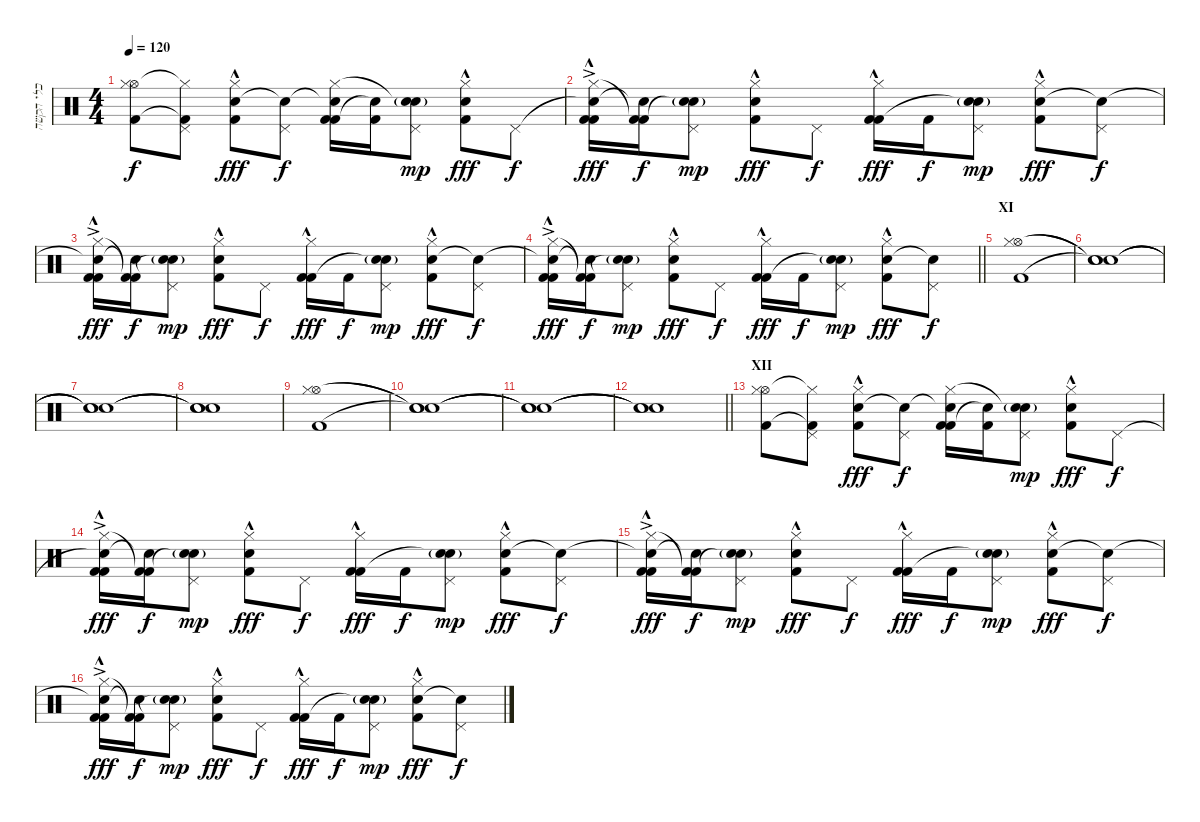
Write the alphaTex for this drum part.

\track ("כלי הקשה" "כלי הקשה") {instrument percussion}
\staff {score}
\articulation defaults
\ts (4 4)
\tempo 120
\clef neutral
\ks c
("Hi-Hat (open)" "Hi-Hat (closed)" "Kick (hit) 2").8{dy f} ("Pedal Hi-Hat (hit)" "Hi-Hat (closed)"{t} "Kick (hit) 2"{t}).8 ("Hand Clap (hit)"{hac} "Hi-Hat (closed)" "Kick (hit) 2").8{dy fff} ("Snare (hit)"{t} "Pedal Hi-Hat (hit)").8{dy f} ("Snare (hit)"{t} "Kick (hit) 2" "Hi-Hat (closed)" "Kick (hit) 2").16 ("Kick (hit) 2" "Snare (hit)"{t}).16 ("Hand Clap (hit)"{g} "Pedal Hi-Hat (hit)" "Snare (hit)"{t}).8{dy mp} ("Hand Clap (hit)"{hac} "Hi-Hat (closed)" "Kick (hit) 2").8{dy fff} "Pedal Hi-Hat (hit)".8{dy f} |
("Snare (hit)"{t} "Kick (hit) 2"{ac} "Hi-Hat (closed)"{hac} "Kick (hit) 2"{hac}).16{dy fff} ("Snare (hit)"{t} "Kick (hit) 2" "Kick (hit) 2"{t}).16{dy f} ("Hand Clap (hit)"{g} "Pedal Hi-Hat (hit)" "Snare (hit)"{t}).8{dy mp} ("Hand Clap (hit)"{hac} "Hi-Hat (closed)"{hac} "Kick (hit) 2"{hac}).8{dy fff} "Pedal Hi-Hat (hit)".8{dy f} ("Kick (hit) 2" "Hi-Hat (closed)"{hac} "Kick (hit) 2"{hac}).16{dy fff} "Kick (hit) 2".16{dy f} ("Hand Clap (hit)"{g} "Pedal Hi-Hat (hit)" "Snare (hit)"{t}).8{dy mp} ("Hand Clap (hit)"{hac} "Hi-Hat (closed)"{hac} "Kick (hit) 2"{hac}).8{dy fff} ("Snare (hit)"{t} "Pedal Hi-Hat (hit)").8{dy f} |
("Snare (hit)"{t} "Kick (hit) 2"{ac} "Hi-Hat (closed)"{hac} "Kick (hit) 2"{hac}).16{dy fff} ("Snare (hit)"{t} "Kick (hit) 2" "Kick (hit) 2"{t}).16{dy f} ("Hand Clap (hit)"{g} "Pedal Hi-Hat (hit)" "Snare (hit)"{t}).8{dy mp} ("Hand Clap (hit)"{hac} "Hi-Hat (closed)"{hac} "Kick (hit) 2"{hac}).8{dy fff} "Pedal Hi-Hat (hit)".8{dy f} ("Kick (hit) 2" "Hi-Hat (closed)"{hac} "Kick (hit) 2"{hac}).16{dy fff} "Kick (hit) 2".16{dy f} ("Hand Clap (hit)"{g} "Pedal Hi-Hat (hit)" "Snare (hit)"{t}).8{dy mp} ("Hand Clap (hit)"{hac} "Hi-Hat (closed)"{hac} "Kick (hit) 2"{hac}).8{dy fff} ("Snare (hit)"{t} "Pedal Hi-Hat (hit)").8{dy f} |
\barLineRight lightlight
("Snare (hit)"{t} "Kick (hit) 2"{ac} "Hi-Hat (closed)"{hac} "Kick (hit) 2"{hac}).16{dy fff} ("Snare (hit)"{t} "Kick (hit) 2" "Kick (hit) 2"{t}).16{dy f} ("Hand Clap (hit)"{g} "Pedal Hi-Hat (hit)" "Snare (hit)"{t}).8{dy mp} ("Hand Clap (hit)"{hac} "Hi-Hat (closed)"{hac} "Kick (hit) 2"{hac}).8{dy fff} "Pedal Hi-Hat (hit)".8{dy f} ("Kick (hit) 2" "Hi-Hat (closed)"{hac} "Kick (hit) 2"{hac}).16{dy fff} "Kick (hit) 2".16{dy f} ("Hand Clap (hit)"{g} "Pedal Hi-Hat (hit)" "Snare (hit)"{t}).8{dy mp} ("Hand Clap (hit)"{hac} "Hi-Hat (closed)"{hac} "Kick (hit) 2"{hac}).8{dy fff} ("Snare (hit)"{t} "Pedal Hi-Hat (hit)").8{dy f} |
\section ("" "XI")
("Hi-Hat (open)" "Hi-Hat (closed)" "Kick (hit) 2").1 |
("Snare (hit)"{t} "Snare (hit)"{t} "Snare (hit)"{t}).1 |
("Snare (hit)"{t} "Snare (hit)"{t} "Snare (hit)"{t}).1 |
("Snare (hit)"{t} "Snare (hit)"{t} "Snare (hit)"{t}).1 |
("Hi-Hat (open)" "Hi-Hat (closed)" "Kick (hit) 2").1 |
("Snare (hit)"{t} "Snare (hit)"{t} "Snare (hit)"{t}).1 |
("Snare (hit)"{t} "Snare (hit)"{t} "Snare (hit)"{t}).1 |
\barLineRight lightlight
("Snare (hit)"{t} "Snare (hit)"{t} "Snare (hit)"{t}).1 |
\section ("" "XII")
("Hi-Hat (open)" "Hi-Hat (closed)" "Kick (hit) 2").8 ("Pedal Hi-Hat (hit)" "Hi-Hat (closed)"{t} "Kick (hit) 2"{t}).8 ("Hand Clap (hit)"{hac} "Hi-Hat (closed)" "Kick (hit) 2").8{dy fff} ("Snare (hit)"{t} "Pedal Hi-Hat (hit)").8{dy f} ("Snare (hit)"{t} "Kick (hit) 2" "Hi-Hat (closed)" "Kick (hit) 2").16 ("Kick (hit) 2" "Snare (hit)"{t}).16 ("Hand Clap (hit)"{g} "Pedal Hi-Hat (hit)" "Snare (hit)"{t}).8{dy mp} ("Hand Clap (hit)"{hac} "Hi-Hat (closed)" "Kick (hit) 2").8{dy fff} "Pedal Hi-Hat (hit)".8{dy f} |
("Snare (hit)"{t} "Kick (hit) 2"{ac} "Hi-Hat (closed)"{hac} "Kick (hit) 2"{hac}).16{dy fff} ("Snare (hit)"{t} "Kick (hit) 2" "Kick (hit) 2"{t}).16{dy f} ("Hand Clap (hit)"{g} "Pedal Hi-Hat (hit)" "Snare (hit)"{t}).8{dy mp} ("Hand Clap (hit)"{hac} "Hi-Hat (closed)"{hac} "Kick (hit) 2"{hac}).8{dy fff} "Pedal Hi-Hat (hit)".8{dy f} ("Kick (hit) 2" "Hi-Hat (closed)"{hac} "Kick (hit) 2"{hac}).16{dy fff} "Kick (hit) 2".16{dy f} ("Hand Clap (hit)"{g} "Pedal Hi-Hat (hit)" "Snare (hit)"{t}).8{dy mp} ("Hand Clap (hit)"{hac} "Hi-Hat (closed)"{hac} "Kick (hit) 2"{hac}).8{dy fff} ("Snare (hit)"{t} "Pedal Hi-Hat (hit)").8{dy f} |
("Snare (hit)"{t} "Kick (hit) 2"{ac} "Hi-Hat (closed)"{hac} "Kick (hit) 2"{hac}).16{dy fff} ("Snare (hit)"{t} "Kick (hit) 2" "Kick (hit) 2"{t}).16{dy f} ("Hand Clap (hit)"{g} "Pedal Hi-Hat (hit)" "Snare (hit)"{t}).8{dy mp} ("Hand Clap (hit)"{hac} "Hi-Hat (closed)"{hac} "Kick (hit) 2"{hac}).8{dy fff} "Pedal Hi-Hat (hit)".8{dy f} ("Kick (hit) 2" "Hi-Hat (closed)"{hac} "Kick (hit) 2"{hac}).16{dy fff} "Kick (hit) 2".16{dy f} ("Hand Clap (hit)"{g} "Pedal Hi-Hat (hit)" "Snare (hit)"{t}).8{dy mp} ("Hand Clap (hit)"{hac} "Hi-Hat (closed)"{hac} "Kick (hit) 2"{hac}).8{dy fff} ("Snare (hit)"{t} "Pedal Hi-Hat (hit)").8{dy f} |
("Snare (hit)"{t} "Kick (hit) 2"{ac} "Hi-Hat (closed)"{hac} "Kick (hit) 2"{hac}).16{dy fff} ("Snare (hit)"{t} "Kick (hit) 2" "Kick (hit) 2"{t}).16{dy f} ("Hand Clap (hit)"{g} "Pedal Hi-Hat (hit)" "Snare (hit)"{t}).8{dy mp} ("Hand Clap (hit)"{hac} "Hi-Hat (closed)"{hac} "Kick (hit) 2"{hac}).8{dy fff} "Pedal Hi-Hat (hit)".8{dy f} ("Kick (hit) 2" "Hi-Hat (closed)"{hac} "Kick (hit) 2"{hac}).16{dy fff} "Kick (hit) 2".16{dy f} ("Hand Clap (hit)"{g} "Pedal Hi-Hat (hit)" "Snare (hit)"{t}).8{dy mp} ("Hand Clap (hit)"{hac} "Hi-Hat (closed)"{hac} "Kick (hit) 2"{hac}).8{dy fff} ("Snare (hit)"{t} "Pedal Hi-Hat (hit)").8{dy f}
